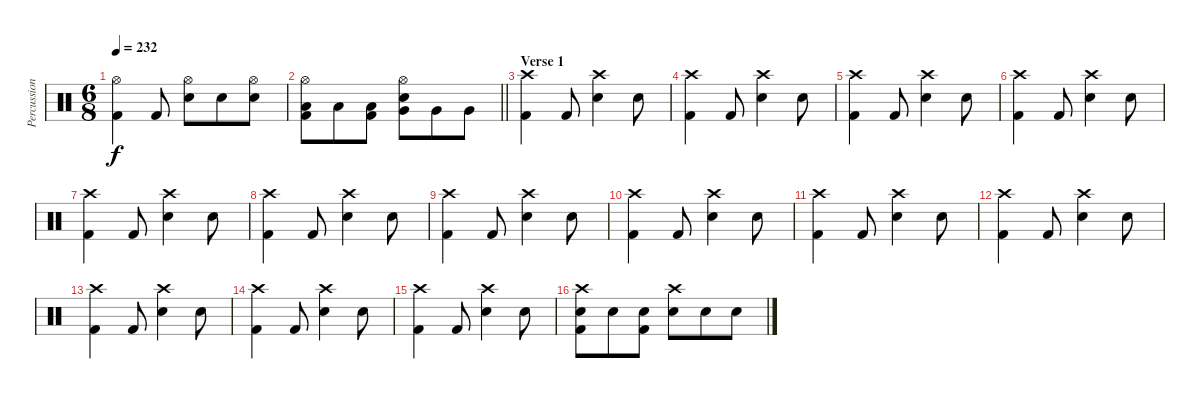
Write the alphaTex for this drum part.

\track ("Percussion" "Percussion") {instrument percussion}
\staff {score}
\articulation defaults
\ts (6 8)
\tempo 232
\clef neutral
\ks c
("Hi-Hat (open)" "Kick (hit) 2").4{dy f} "Kick (hit) 2".8 ("Hi-Hat (open)" "Electric Snare (hit)").8 "Electric Snare (hit)".8 ("Hi-Hat (open)" "Electric Snare (hit)").8 |
\barLineRight lightlight
("Hi-Hat (open)" "Low Tom (hit)" "Kick (hit) 2").8 "Low Tom (hit)".8 ("Low Tom (hit)" "Kick (hit) 2").8 ("Hi-Hat (open)" "Electric Snare (hit)" "Very Low Tom (hit)").8 "Very Low Tom (hit)".8 "Very Low Tom (hit)".8 |
\section ("" "Verse 1")
("Crash high (hit)" "Kick (hit) 2").4 "Kick (hit) 2".8 ("Crash high (hit)" "Electric Snare (hit)").4 "Electric Snare (hit)".8 |
("Crash high (hit)" "Kick (hit) 2").4 "Kick (hit) 2".8 ("Crash high (hit)" "Electric Snare (hit)").4 "Electric Snare (hit)".8 |
("Crash high (hit)" "Kick (hit) 2").4 "Kick (hit) 2".8 ("Crash high (hit)" "Electric Snare (hit)").4 "Electric Snare (hit)".8 |
("Crash high (hit)" "Kick (hit) 2").4 "Kick (hit) 2".8 ("Crash high (hit)" "Electric Snare (hit)").4 "Electric Snare (hit)".8 |
("Crash high (hit)" "Kick (hit) 2").4 "Kick (hit) 2".8 ("Crash high (hit)" "Electric Snare (hit)").4 "Electric Snare (hit)".8 |
("Crash high (hit)" "Kick (hit) 2").4 "Kick (hit) 2".8 ("Crash high (hit)" "Electric Snare (hit)").4 "Electric Snare (hit)".8 |
("Crash high (hit)" "Kick (hit) 2").4 "Kick (hit) 2".8 ("Crash high (hit)" "Electric Snare (hit)").4 "Electric Snare (hit)".8 |
("Crash high (hit)" "Kick (hit) 2").4 "Kick (hit) 2".8 ("Crash high (hit)" "Electric Snare (hit)").4 "Electric Snare (hit)".8 |
("Crash high (hit)" "Kick (hit) 2").4 "Kick (hit) 2".8 ("Crash high (hit)" "Electric Snare (hit)").4 "Electric Snare (hit)".8 |
("Crash high (hit)" "Kick (hit) 2").4 "Kick (hit) 2".8 ("Crash high (hit)" "Electric Snare (hit)").4 "Electric Snare (hit)".8 |
("Crash high (hit)" "Kick (hit) 2").4 "Kick (hit) 2".8 ("Crash high (hit)" "Electric Snare (hit)").4 "Electric Snare (hit)".8 |
("Crash high (hit)" "Kick (hit) 2").4 "Kick (hit) 2".8 ("Crash high (hit)" "Electric Snare (hit)").4 "Electric Snare (hit)".8 |
("Crash high (hit)" "Kick (hit) 2").4 "Kick (hit) 2".8 ("Crash high (hit)" "Electric Snare (hit)").4 "Electric Snare (hit)".8 |
("Crash high (hit)" "Electric Snare (hit)" "Kick (hit) 2").8 "Electric Snare (hit)".8 ("Electric Snare (hit)" "Kick (hit) 2").8 ("Crash high (hit)" "Electric Snare (hit)").8 "Electric Snare (hit)".8 "Electric Snare (hit)".8
